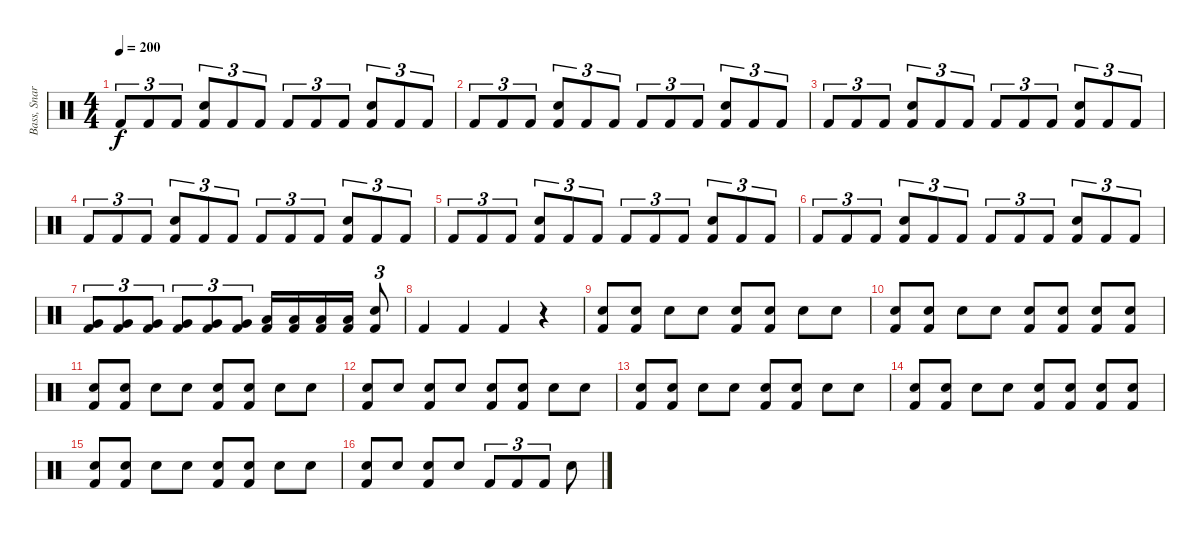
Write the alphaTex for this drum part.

\track ("Bass, Snare & Toms" "Bass, Snar") {instrument percussion}
\staff {score}
\articulation defaults
\ts (4 4)
\tempo 200
\clef neutral
\ks c "Kick (hit) 2".8{tu (3 2) dy f} "Kick (hit) 2".8{tu (3 2)} "Kick (hit) 2".8{tu (3 2)}
("Electric Snare (hit)" "Kick (hit) 2").8{tu (3 2)} "Kick (hit) 2".8{tu (3 2)} "Kick (hit) 2".8{tu (3 2)} "Kick (hit) 2".8{tu (3 2)} "Kick (hit) 2".8{tu (3 2)} "Kick (hit) 2".8{tu (3 2)} ("Electric Snare (hit)" "Kick (hit) 2").8{tu (3 2)} "Kick (hit) 2".8{tu (3 2)} "Kick (hit) 2".8{tu (3 2)} |
"Kick (hit) 2".8{tu (3 2)} "Kick (hit) 2".8{tu (3 2)} "Kick (hit) 2".8{tu (3 2)} ("Electric Snare (hit)" "Kick (hit) 2").8{tu (3 2)} "Kick (hit) 2".8{tu (3 2)} "Kick (hit) 2".8{tu (3 2)} "Kick (hit) 2".8{tu (3 2)} "Kick (hit) 2".8{tu (3 2)} "Kick (hit) 2".8{tu (3 2)} ("Electric Snare (hit)" "Kick (hit) 2").8{tu (3 2)} "Kick (hit) 2".8{tu (3 2)} "Kick (hit) 2".8{tu (3 2)} |
"Kick (hit) 2".8{tu (3 2)} "Kick (hit) 2".8{tu (3 2)} "Kick (hit) 2".8{tu (3 2)} ("Electric Snare (hit)" "Kick (hit) 2").8{tu (3 2)} "Kick (hit) 2".8{tu (3 2)} "Kick (hit) 2".8{tu (3 2)} "Kick (hit) 2".8{tu (3 2)} "Kick (hit) 2".8{tu (3 2)} "Kick (hit) 2".8{tu (3 2)} ("Electric Snare (hit)" "Kick (hit) 2").8{tu (3 2)} "Kick (hit) 2".8{tu (3 2)} "Kick (hit) 2".8{tu (3 2)} |
"Kick (hit) 2".8{tu (3 2)} "Kick (hit) 2".8{tu (3 2)} "Kick (hit) 2".8{tu (3 2)} ("Electric Snare (hit)" "Kick (hit) 2").8{tu (3 2)} "Kick (hit) 2".8{tu (3 2)} "Kick (hit) 2".8{tu (3 2)} "Kick (hit) 2".8{tu (3 2)} "Kick (hit) 2".8{tu (3 2)} "Kick (hit) 2".8{tu (3 2)} ("Electric Snare (hit)" "Kick (hit) 2").8{tu (3 2)} "Kick (hit) 2".8{tu (3 2)} "Kick (hit) 2".8{tu (3 2)} |
"Kick (hit) 2".8{tu (3 2)} "Kick (hit) 2".8{tu (3 2)} "Kick (hit) 2".8{tu (3 2)} ("Electric Snare (hit)" "Kick (hit) 2").8{tu (3 2)} "Kick (hit) 2".8{tu (3 2)} "Kick (hit) 2".8{tu (3 2)} "Kick (hit) 2".8{tu (3 2)} "Kick (hit) 2".8{tu (3 2)} "Kick (hit) 2".8{tu (3 2)} ("Electric Snare (hit)" "Kick (hit) 2").8{tu (3 2)} "Kick (hit) 2".8{tu (3 2)} "Kick (hit) 2".8{tu (3 2)} |
"Kick (hit) 2".8{tu (3 2)} "Kick (hit) 2".8{tu (3 2)} "Kick (hit) 2".8{tu (3 2)} ("Electric Snare (hit)" "Kick (hit) 2").8{tu (3 2)} "Kick (hit) 2".8{tu (3 2)} "Kick (hit) 2".8{tu (3 2)} "Kick (hit) 2".8{tu (3 2)} "Kick (hit) 2".8{tu (3 2)} "Kick (hit) 2".8{tu (3 2)} ("Electric Snare (hit)" "Kick (hit) 2").8{tu (3 2)} "Kick (hit) 2".8{tu (3 2)} "Kick (hit) 2".8{tu (3 2)} |
("Very Low Tom (hit)" "Kick (hit) 2").8{tu (3 2)} ("Very Low Tom (hit)" "Kick (hit) 2").8{tu (3 2)} ("Very Low Tom (hit)" "Kick (hit) 2").8{tu (3 2)} ("Very Low Tom (hit)" "Kick (hit) 2").8{tu (3 2)} ("Very Low Tom (hit)" "Kick (hit) 2").8{tu (3 2)} ("Very Low Tom (hit)" "Kick (hit) 2").8{tu (3 2)} ("Low Floor Tom (hit)" "Kick (hit) 2").16 ("Low Floor Tom (hit)" "Kick (hit) 2").16 ("Low Floor Tom (hit)" "Kick (hit) 2").16 ("Low Floor Tom (hit)" "Kick (hit) 2").16 ("Electric Snare (hit)" "Kick (hit) 2").8{tu (3 2)} |
"Kick (hit) 2".4 "Kick (hit) 2".4 "Kick (hit) 2".4 r.4 |
("Electric Snare (hit)" "Kick (hit) 2").8 ("Electric Snare (hit)" "Kick (hit) 2").8 "Electric Snare (hit)".8 "Electric Snare (hit)".8 ("Electric Snare (hit)" "Kick (hit) 2").8 ("Electric Snare (hit)" "Kick (hit) 2").8 "Electric Snare (hit)".8 "Electric Snare (hit)".8 |
("Electric Snare (hit)" "Kick (hit) 2").8 ("Electric Snare (hit)" "Kick (hit) 2").8 "Electric Snare (hit)".8 "Electric Snare (hit)".8 ("Electric Snare (hit)" "Kick (hit) 2").8 ("Electric Snare (hit)" "Kick (hit) 2").8 ("Electric Snare (hit)" "Kick (hit) 2").8 ("Electric Snare (hit)" "Kick (hit) 2").8 |
("Electric Snare (hit)" "Kick (hit) 2").8 ("Electric Snare (hit)" "Kick (hit) 2").8 "Electric Snare (hit)".8 "Electric Snare (hit)".8 ("Electric Snare (hit)" "Kick (hit) 2").8 ("Electric Snare (hit)" "Kick (hit) 2").8 "Electric Snare (hit)".8 "Electric Snare (hit)".8 |
("Electric Snare (hit)" "Kick (hit) 2").8 "Electric Snare (hit)".8 ("Electric Snare (hit)" "Kick (hit) 2").8 "Electric Snare (hit)".8 ("Electric Snare (hit)" "Kick (hit) 2").8 ("Electric Snare (hit)" "Kick (hit) 2").8 "Electric Snare (hit)".8 "Electric Snare (hit)".8 |
("Electric Snare (hit)" "Kick (hit) 2").8 ("Electric Snare (hit)" "Kick (hit) 2").8 "Electric Snare (hit)".8 "Electric Snare (hit)".8 ("Electric Snare (hit)" "Kick (hit) 2").8 ("Electric Snare (hit)" "Kick (hit) 2").8 "Electric Snare (hit)".8 "Electric Snare (hit)".8 |
("Electric Snare (hit)" "Kick (hit) 2").8 ("Electric Snare (hit)" "Kick (hit) 2").8 "Electric Snare (hit)".8 "Electric Snare (hit)".8 ("Electric Snare (hit)" "Kick (hit) 2").8 ("Electric Snare (hit)" "Kick (hit) 2").8 ("Electric Snare (hit)" "Kick (hit) 2").8 ("Electric Snare (hit)" "Kick (hit) 2").8 |
("Electric Snare (hit)" "Kick (hit) 2").8 ("Electric Snare (hit)" "Kick (hit) 2").8 "Electric Snare (hit)".8 "Electric Snare (hit)".8 ("Electric Snare (hit)" "Kick (hit) 2").8 ("Electric Snare (hit)" "Kick (hit) 2").8 "Electric Snare (hit)".8 "Electric Snare (hit)".8 |
("Electric Snare (hit)" "Kick (hit) 2").8 "Electric Snare (hit)".8 ("Electric Snare (hit)" "Kick (hit) 2").8 "Electric Snare (hit)".8 "Kick (hit) 2".8{tu (3 2)} "Kick (hit) 2".8{tu (3 2)} "Kick (hit) 2".8{tu (3 2)} "Electric Snare (hit)".8
